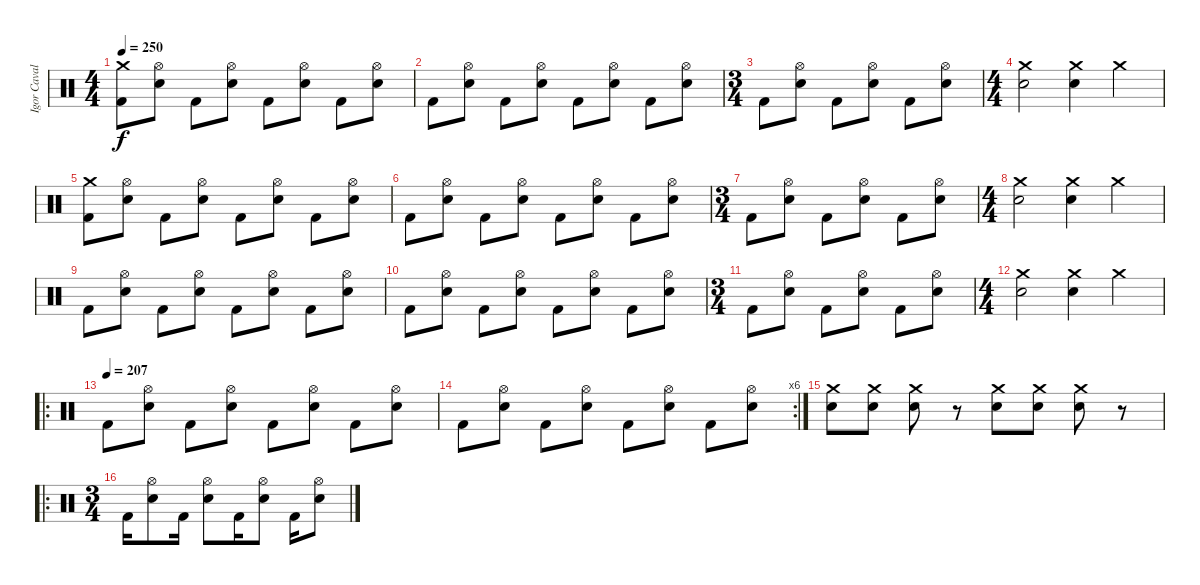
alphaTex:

\track ("Igor Cavalera" "Igor Caval") {solo instrument percussion}
\staff {score}
\articulation defaults
\ts (4 4)
\tempo 250
\clef neutral
\ks c
("Kick (hit) 2" "Crash medium (hit)").8{dy f} ("Electric Snare (hit)" "Hi-Hat (open)").8 "Kick (hit) 2".8 ("Electric Snare (hit)" "Hi-Hat (open)").8 "Kick (hit) 2".8 ("Electric Snare (hit)" "Hi-Hat (open)").8 "Kick (hit) 2".8 ("Electric Snare (hit)" "Hi-Hat (open)").8 |
"Kick (hit) 2".8 ("Electric Snare (hit)" "Hi-Hat (open)").8 "Kick (hit) 2".8 ("Electric Snare (hit)" "Hi-Hat (open)").8 "Kick (hit) 2".8 ("Electric Snare (hit)" "Hi-Hat (open)").8 "Kick (hit) 2".8 ("Electric Snare (hit)" "Hi-Hat (open)").8 |
\ts (3 4)
"Kick (hit) 2".8 ("Electric Snare (hit)" "Hi-Hat (open)").8 "Kick (hit) 2".8 ("Electric Snare (hit)" "Hi-Hat (open)").8 "Kick (hit) 2".8 ("Electric Snare (hit)" "Hi-Hat (open)").8 |
\ts (4 4)
("Crash medium (hit)" "Electric Snare (hit)").2 ("Crash medium (hit)" "Electric Snare (hit)").4 "Crash medium (hit)".4 |
("Kick (hit) 2" "Crash medium (hit)").8 ("Electric Snare (hit)" "Hi-Hat (open)").8 "Kick (hit) 2".8 ("Electric Snare (hit)" "Hi-Hat (open)").8 "Kick (hit) 2".8 ("Electric Snare (hit)" "Hi-Hat (open)").8 "Kick (hit) 2".8 ("Electric Snare (hit)" "Hi-Hat (open)").8 |
"Kick (hit) 2".8 ("Electric Snare (hit)" "Hi-Hat (open)").8 "Kick (hit) 2".8 ("Electric Snare (hit)" "Hi-Hat (open)").8 "Kick (hit) 2".8 ("Electric Snare (hit)" "Hi-Hat (open)").8 "Kick (hit) 2".8 ("Electric Snare (hit)" "Hi-Hat (open)").8 |
\ts (3 4)
"Kick (hit) 2".8 ("Electric Snare (hit)" "Hi-Hat (open)").8 "Kick (hit) 2".8 ("Electric Snare (hit)" "Hi-Hat (open)").8 "Kick (hit) 2".8 ("Electric Snare (hit)" "Hi-Hat (open)").8 |
\ts (4 4)
("Crash medium (hit)" "Electric Snare (hit)").2 ("Crash medium (hit)" "Electric Snare (hit)").4 "Crash medium (hit)".4 |
"Kick (hit) 2".8 ("Electric Snare (hit)" "Hi-Hat (open)").8 "Kick (hit) 2".8 ("Electric Snare (hit)" "Hi-Hat (open)").8 "Kick (hit) 2".8 ("Electric Snare (hit)" "Hi-Hat (open)").8 "Kick (hit) 2".8 ("Electric Snare (hit)" "Hi-Hat (open)").8 |
"Kick (hit) 2".8 ("Electric Snare (hit)" "Hi-Hat (open)").8 "Kick (hit) 2".8 ("Electric Snare (hit)" "Hi-Hat (open)").8 "Kick (hit) 2".8 ("Electric Snare (hit)" "Hi-Hat (open)").8 "Kick (hit) 2".8 ("Electric Snare (hit)" "Hi-Hat (open)").8 |
\ts (3 4)
"Kick (hit) 2".8 ("Electric Snare (hit)" "Hi-Hat (open)").8 "Kick (hit) 2".8 ("Electric Snare (hit)" "Hi-Hat (open)").8 "Kick (hit) 2".8 ("Electric Snare (hit)" "Hi-Hat (open)").8 |
\ts (4 4)
("Crash medium (hit)" "Electric Snare (hit)").2 ("Crash medium (hit)" "Electric Snare (hit)").4 "Crash medium (hit)".4 |
\ro
\tempo (207)
"Kick (hit) 2".8 ("Electric Snare (hit)" "Hi-Hat (open)").8 "Kick (hit) 2".8 ("Electric Snare (hit)" "Hi-Hat (open)").8 "Kick (hit) 2".8 ("Electric Snare (hit)" "Hi-Hat (open)").8 "Kick (hit) 2".8 ("Electric Snare (hit)" "Hi-Hat (open)").8 |
\rc 6 "Kick (hit) 2".8
("Electric Snare (hit)" "Hi-Hat (open)").8 "Kick (hit) 2".8 ("Electric Snare (hit)" "Hi-Hat (open)").8 "Kick (hit) 2".8 ("Electric Snare (hit)" "Hi-Hat (open)").8 "Kick (hit) 2".8 ("Electric Snare (hit)" "Hi-Hat (open)").8 |
("Electric Snare (hit)" "Crash medium (hit)").8 ("Electric Snare (hit)" "Crash medium (hit)").8 ("Electric Snare (hit)" "Crash medium (hit)").8 r.8 ("Electric Snare (hit)" "Crash medium (hit)").8 ("Electric Snare (hit)" "Crash medium (hit)").8 ("Electric Snare (hit)" "Crash medium (hit)").8 r.8 |
\ro
\ts (3 4)
"Kick (hit) 2".16 ("Electric Snare (hit)" "Hi-Hat (open)").8 "Kick (hit) 2".16 ("Electric Snare (hit)" "Hi-Hat (open)").8 "Kick (hit) 2".16 ("Electric Snare (hit)" "Hi-Hat (open)").8 "Kick (hit) 2".16 ("Electric Snare (hit)" "Hi-Hat (open)").8
